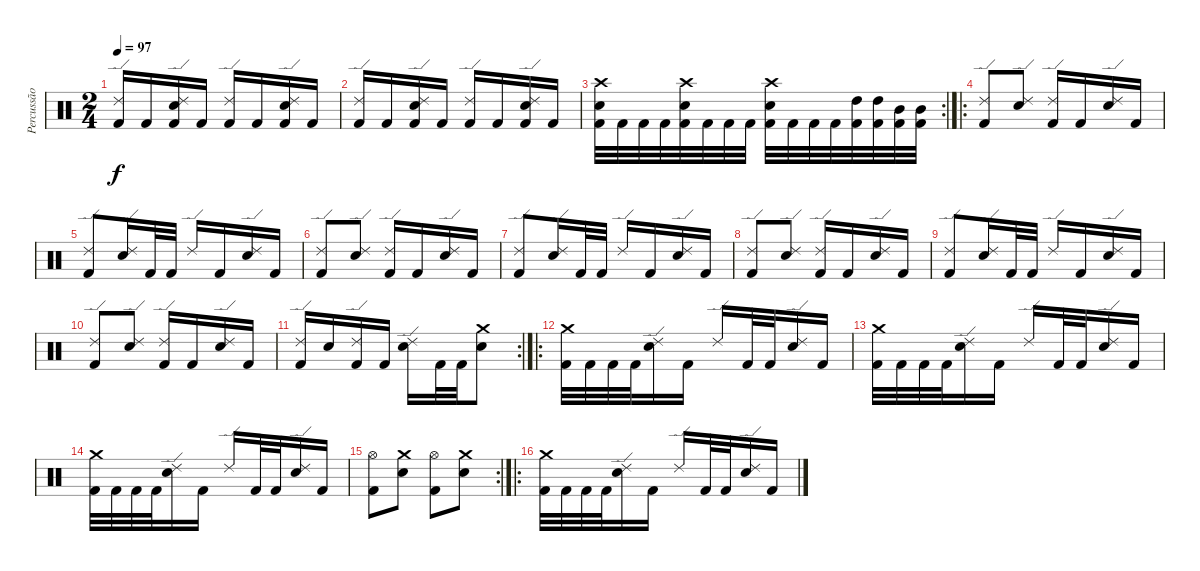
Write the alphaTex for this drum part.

\track ("Percussão" "Percussão") {instrument percussion}
\staff {score}
\articulation defaults
\ts (2 4)
\tempo 97
\clef neutral
\ks c
("Ride (edge) 2" "Kick (hit) 2").16{dy f} "Kick (hit) 2".16 ("Ride (edge) 2" "Snare (hit) 2" "Kick (hit) 2").16 "Kick (hit) 2".16 ("Ride (edge) 2" "Kick (hit) 2").16 "Kick (hit) 2".16 ("Ride (edge) 2" "Snare (hit) 2" "Kick (hit) 2").16 "Kick (hit) 2".16 |
("Ride (edge) 2" "Kick (hit) 2").16 "Kick (hit) 2".16 ("Ride (edge) 2" "Snare (hit) 2" "Kick (hit) 2").16 "Kick (hit) 2".16 ("Ride (edge) 2" "Kick (hit) 2").16 "Kick (hit) 2".16 ("Ride (edge) 2" "Snare (hit) 2" "Kick (hit) 2").16 "Kick (hit) 2".16 |
\rc 2
("Crash high (hit)" "Snare (hit) 2" "Kick (hit) 2").32 "Kick (hit) 2".32 "Kick (hit) 2".32 "Kick (hit) 2".32 ("Crash high (hit)" "Snare (hit) 2" "Kick (hit) 2").32 "Kick (hit) 2".32 "Kick (hit) 2".32 "Kick (hit) 2".32 ("Crash high (hit)" "Snare (hit) 2" "Kick (hit) 2").32 "Kick (hit) 2".32 "Kick (hit) 2".32 "Kick (hit) 2".32 ("High Tom (hit)" "Kick (hit) 2").32 ("High Tom (hit)" "Kick (hit) 2").32 ("Mid Tom (hit)" "Kick (hit) 2").32 ("Mid Tom (hit)" "Kick (hit) 2").32 |
\ro
("Ride (edge) 2" "Kick (hit) 2").8 ("Ride (edge) 2" "Snare (hit) 2").8 ("Ride (edge) 2" "Kick (hit) 2").16 "Kick (hit) 2".16 ("Ride (edge) 2" "Snare (hit) 2").16 "Kick (hit) 2".16 |
("Ride (edge) 2" "Kick (hit) 2").8 ("Ride (edge) 2" "Snare (hit) 2").16 "Kick (hit) 2".32 "Kick (hit) 2".32 "Ride (edge) 2".16 "Kick (hit) 2".16 ("Ride (edge) 2" "Snare (hit) 2").16 "Kick (hit) 2".16 |
("Ride (edge) 2" "Kick (hit) 2").8 ("Ride (edge) 2" "Snare (hit) 2").8 ("Ride (edge) 2" "Kick (hit) 2").16 "Kick (hit) 2".16 ("Ride (edge) 2" "Snare (hit) 2").16 "Kick (hit) 2".16 |
("Ride (edge) 2" "Kick (hit) 2").8 ("Ride (edge) 2" "Snare (hit) 2").16 "Kick (hit) 2".32 "Kick (hit) 2".32 "Ride (edge) 2".16 "Kick (hit) 2".16 ("Ride (edge) 2" "Snare (hit) 2").16 "Kick (hit) 2".16 |
("Ride (edge) 2" "Kick (hit) 2").8 ("Ride (edge) 2" "Snare (hit) 2").8 ("Ride (edge) 2" "Kick (hit) 2").16 "Kick (hit) 2".16 ("Ride (edge) 2" "Snare (hit) 2").16 "Kick (hit) 2".16 |
("Ride (edge) 2" "Kick (hit) 2").8 ("Ride (edge) 2" "Snare (hit) 2").16 "Kick (hit) 2".32 "Kick (hit) 2".32 "Ride (edge) 2".16 "Kick (hit) 2".16 ("Ride (edge) 2" "Snare (hit) 2").16 "Kick (hit) 2".16 |
("Ride (edge) 2" "Kick (hit) 2").8 ("Ride (edge) 2" "Snare (hit) 2").8 ("Ride (edge) 2" "Kick (hit) 2").16 "Kick (hit) 2".16 ("Ride (edge) 2" "Snare (hit) 2").16 "Kick (hit) 2".16 |
\rc 2
("Ride (edge) 2" "Kick (hit) 2").16 "Snare (hit) 2".16 ("Ride (edge) 2" "Kick (hit) 2").16 "Kick (hit) 2".16 ("Ride (edge) 2" "Snare (hit) 2").16 "Kick (hit) 2".32 "Kick (hit) 2".32 ("Crash medium (hit)" "Snare (hit) 2").8 |
\ro
("Crash medium (hit)" "Kick (hit) 2").32 "Kick (hit) 2".32 "Kick (hit) 2".32 "Kick (hit) 2".32 ("Ride (edge) 2" "Snare (hit) 2").16 "Kick (hit) 2".16 "Ride (edge) 2".16 "Kick (hit) 2".32 "Kick (hit) 2".32 ("Ride (edge) 2" "Snare (hit) 2").16 "Kick (hit) 2".16 |
("Crash medium (hit)" "Kick (hit) 2").32 "Kick (hit) 2".32 "Kick (hit) 2".32 "Kick (hit) 2".32 ("Ride (edge) 2" "Snare (hit) 2").16 "Kick (hit) 2".16 "Ride (edge) 2".16 "Kick (hit) 2".32 "Kick (hit) 2".32 ("Ride (edge) 2" "Snare (hit) 2").16 "Kick (hit) 2".16 |
("Crash medium (hit)" "Kick (hit) 2").32 "Kick (hit) 2".32 "Kick (hit) 2".32 "Kick (hit) 2".32 ("Ride (edge) 2" "Snare (hit) 2").16 "Kick (hit) 2".16 "Ride (edge) 2".16 "Kick (hit) 2".32 "Kick (hit) 2".32 ("Ride (edge) 2" "Snare (hit) 2").16 "Kick (hit) 2".16 |
\rc 2
("Hi-Hat (open)" "Kick (hit) 2").8 ("Crash medium (hit)" "Snare (hit) 2").8 ("Hi-Hat (open)" "Kick (hit) 2").8 ("Crash medium (hit)" "Snare (hit) 2").8 |
\ro
("Crash medium (hit)" "Kick (hit) 2").32 "Kick (hit) 2".32 "Kick (hit) 2".32 "Kick (hit) 2".32 ("Ride (edge) 2" "Snare (hit) 2").16 "Kick (hit) 2".16 "Ride (edge) 2".16 "Kick (hit) 2".32 "Kick (hit) 2".32 ("Ride (edge) 2" "Snare (hit) 2").16 "Kick (hit) 2".16
